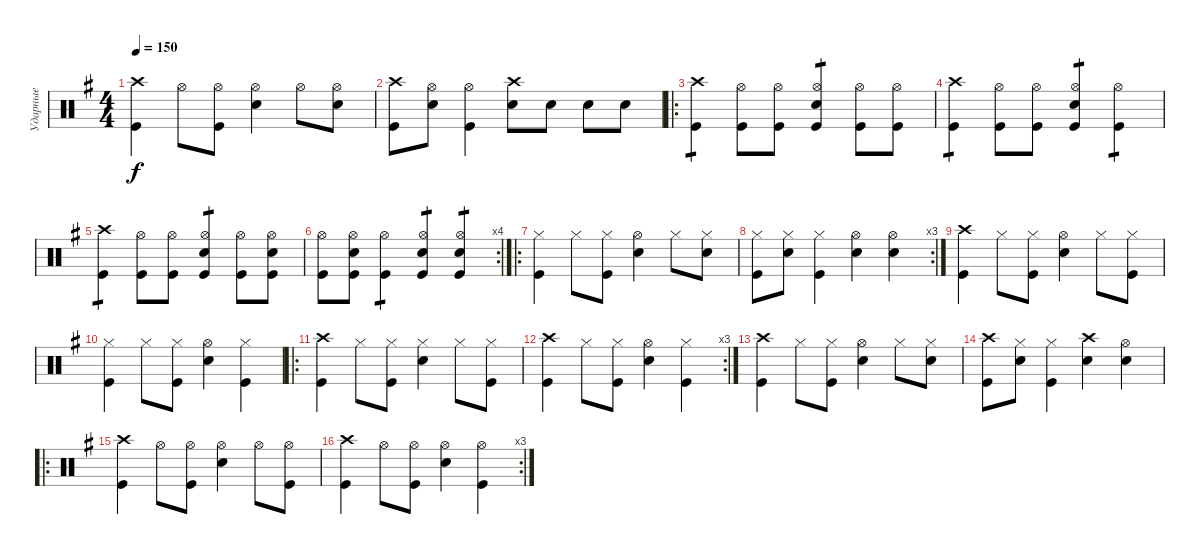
\track ("Ударные" "Ударные") {instrument percussion}
\staff {score}
\articulation defaults
\ts (4 4)
\tempo 150
\clef neutral
\ks g
("Crash high (hit)" "Kick (hit)").4{dy f} "Hi-Hat (open)".8 ("Hi-Hat (open)" "Kick (hit)").8 ("Hi-Hat (open)" "Snare (hit) 2").4 "Hi-Hat (open)".8 ("Hi-Hat (open)" "Snare (hit) 2").8 |
("Crash high (hit)" "Kick (hit)").8 ("Hi-Hat (open)" "Snare (hit) 2").8 ("Hi-Hat (open)" "Kick (hit)").4 ("Crash high (hit)" "Snare (hit) 2").8 "Snare (hit) 2".8 "Snare (hit) 2".8 "Snare (hit) 2".8 |
\ro
("Crash high (hit)" "Kick (hit)").4{tp 1} ("Hi-Hat (open)" "Kick (hit)").8 ("Hi-Hat (open)" "Kick (hit)").8 ("Hi-Hat (open)" "Snare (hit) 2" "Kick (hit)").4{tp 1} ("Hi-Hat (open)" "Kick (hit)").8 ("Hi-Hat (open)" "Kick (hit)").8 |
("Crash high (hit)" "Kick (hit)").4{tp 1} ("Hi-Hat (open)" "Kick (hit)").8 ("Hi-Hat (open)" "Kick (hit)").8 ("Hi-Hat (open)" "Snare (hit) 2" "Kick (hit)").4{tp 1} ("Hi-Hat (open)" "Kick (hit)").4{tp 1} |
("Crash high (hit)" "Kick (hit)").4{tp 1} ("Hi-Hat (open)" "Kick (hit)").8 ("Hi-Hat (open)" "Kick (hit)").8 ("Hi-Hat (open)" "Snare (hit) 2" "Kick (hit)").4{tp 1} ("Hi-Hat (open)" "Kick (hit)").8 ("Hi-Hat (open)" "Snare (hit) 2" "Kick (hit)").8 |
\rc 4
("Hi-Hat (open)" "Kick (hit)").8 ("Hi-Hat (open)" "Snare (hit) 2" "Kick (hit)").8 ("Hi-Hat (open)" "Kick (hit)").4{tp 1} ("Hi-Hat (open)" "Snare (hit) 2" "Kick (hit)").4{tp 1} ("Hi-Hat (open)" "Snare (hit) 2" "Kick (hit)").4{tp 1} |
\ro
("Hi-Hat (closed)" "Kick (hit)").4 "Hi-Hat (closed)".8 ("Hi-Hat (closed)" "Kick (hit)").8 ("Hi-Hat (open)" "Snare (hit) 2").4 "Hi-Hat (closed)".8 ("Hi-Hat (closed)" "Snare (hit) 2").8 |
\rc 3
("Hi-Hat (closed)" "Kick (hit)").8 ("Hi-Hat (closed)" "Snare (hit) 2").8 ("Hi-Hat (closed)" "Kick (hit)").4 ("Hi-Hat (open)" "Snare (hit) 2").4 ("Hi-Hat (open)" "Snare (hit) 2").4 |
("Crash high (hit)" "Kick (hit)").4 "Hi-Hat (closed)".8 ("Hi-Hat (closed)" "Kick (hit)").8 ("Hi-Hat (open)" "Snare (hit) 2").4 "Hi-Hat (closed)".8 ("Hi-Hat (closed)" "Kick (hit)").8 |
("Hi-Hat (closed)" "Kick (hit)").4 "Hi-Hat (closed)".8 ("Hi-Hat (closed)" "Kick (hit)").8 ("Hi-Hat (open)" "Snare (hit) 2").4 ("Hi-Hat (closed)" "Kick (hit)").4 |
\ro
("Crash high (hit)" "Kick (hit)").4 "Hi-Hat (closed)".8 ("Hi-Hat (closed)" "Kick (hit)").8 ("Hi-Hat (closed)" "Snare (hit) 2").4 "Hi-Hat (closed)".8 ("Hi-Hat (closed)" "Kick (hit)").8 |
\rc 3
("Crash high (hit)" "Kick (hit)").4 "Hi-Hat (closed)".8 ("Hi-Hat (closed)" "Kick (hit)").8 ("Hi-Hat (open)" "Snare (hit) 2").4 ("Hi-Hat (closed)" "Kick (hit)").4 |
("Crash high (hit)" "Kick (hit)").4 "Hi-Hat (closed)".8 ("Hi-Hat (closed)" "Kick (hit)").8 ("Hi-Hat (open)" "Snare (hit) 2").4 "Hi-Hat (closed)".8 ("Hi-Hat (closed)" "Snare (hit) 2").8 |
("Crash high (hit)" "Kick (hit)").8 ("Hi-Hat (closed)" "Snare (hit) 2").8 ("Hi-Hat (closed)" "Kick (hit)").4 ("Crash high (hit)" "Snare (hit) 2").4 ("Hi-Hat (open)" "Snare (hit) 2").4 |
\ro
("Crash high (hit)" "Kick (hit)").4 "Hi-Hat (open)".8 ("Hi-Hat (open)" "Kick (hit)").8 ("Hi-Hat (open)" "Snare (hit) 2").4 "Hi-Hat (open)".8 ("Hi-Hat (open)" "Kick (hit)").8 |
\rc 3
("Crash high (hit)" "Kick (hit)").4 "Hi-Hat (open)".8 ("Hi-Hat (open)" "Kick (hit)").8 ("Hi-Hat (open)" "Snare (hit) 2").4 ("Hi-Hat (open)" "Kick (hit)").4
